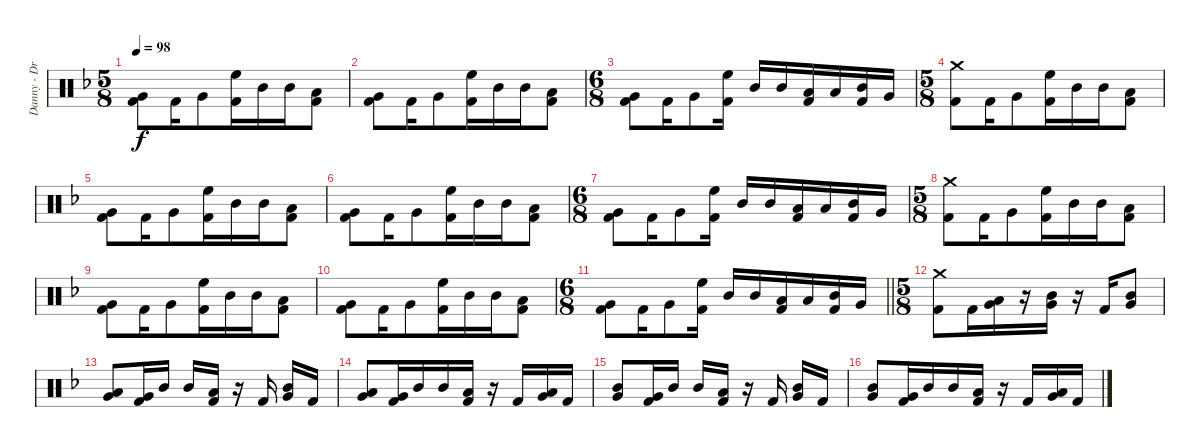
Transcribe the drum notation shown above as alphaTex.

\track ("Danny - Drums" "Danny - Dr") {instrument percussion}
\staff {score}
\articulation defaults
\ts (5 8)
\tempo 98
\clef neutral
\ks dminor
("Very Low Tom (hit)" "Kick (hit) 2").8{dy f beam merge} "Kick (hit) 2".16 "Very Low Tom (hit)".8 ("High Floor Tom (hit)" "Kick (hit) 2").16{beam merge} "Mid Tom (hit)".16 "Mid Tom (hit)".16{beam merge} ("Low Tom (hit)" "Kick (hit) 2").8 |
("Very Low Tom (hit)" "Kick (hit) 2").8{beam merge} "Kick (hit) 2".16 "Very Low Tom (hit)".8 ("High Floor Tom (hit)" "Kick (hit) 2").16{beam merge} "Mid Tom (hit)".16 "Mid Tom (hit)".16{beam merge} ("Low Tom (hit)" "Kick (hit) 2").8 |
\ts (6 8)
("Very Low Tom (hit)" "Kick (hit) 2").8 "Kick (hit) 2".16 "Very Low Tom (hit)".8{beam merge} ("High Floor Tom (hit)" "Kick (hit) 2").16{beam split} "Mid Tom (hit)".16 "Mid Tom (hit)".16 ("Low Tom (hit)" "Kick (hit) 2").16 "Low Tom (hit)".16 ("Mid Tom (hit)" "Kick (hit) 2").16 "Very Low Tom (hit)".16 |
\ts (5 8)
("Crash medium (hit)" "Kick (hit) 2").8{beam merge} "Kick (hit) 2".16 "Very Low Tom (hit)".8 ("High Floor Tom (hit)" "Kick (hit) 2").16{beam merge} "Mid Tom (hit)".16 "Mid Tom (hit)".16{beam merge} ("Low Tom (hit)" "Kick (hit) 2").8 |
("Very Low Tom (hit)" "Kick (hit) 2").8{beam merge} "Kick (hit) 2".16 "Very Low Tom (hit)".8 ("High Floor Tom (hit)" "Kick (hit) 2").16{beam merge} "Mid Tom (hit)".16 "Mid Tom (hit)".16{beam merge} ("Low Tom (hit)" "Kick (hit) 2").8 |
("Very Low Tom (hit)" "Kick (hit) 2").8{beam merge} "Kick (hit) 2".16 "Very Low Tom (hit)".8 ("High Floor Tom (hit)" "Kick (hit) 2").16{beam merge} "Mid Tom (hit)".16 "Mid Tom (hit)".16{beam merge} ("Low Tom (hit)" "Kick (hit) 2").8 |
\ts (6 8)
("Very Low Tom (hit)" "Kick (hit) 2").8 "Kick (hit) 2".16 "Very Low Tom (hit)".8{beam merge} ("High Floor Tom (hit)" "Kick (hit) 2").16{beam split} "Mid Tom (hit)".16 "Mid Tom (hit)".16 ("Low Tom (hit)" "Kick (hit) 2").16 "Low Tom (hit)".16 ("Mid Tom (hit)" "Kick (hit) 2").16 "Very Low Tom (hit)".16 |
\ts (5 8)
("Crash medium (hit)" "Kick (hit) 2").8{beam merge} "Kick (hit) 2".16 "Very Low Tom (hit)".8 ("High Floor Tom (hit)" "Kick (hit) 2").16{beam merge} "Mid Tom (hit)".16 "Mid Tom (hit)".16{beam merge} ("Low Tom (hit)" "Kick (hit) 2").8 |
("Very Low Tom (hit)" "Kick (hit) 2").8{beam merge} "Kick (hit) 2".16 "Very Low Tom (hit)".8 ("High Floor Tom (hit)" "Kick (hit) 2").16{beam merge} "Mid Tom (hit)".16 "Mid Tom (hit)".16{beam merge} ("Low Tom (hit)" "Kick (hit) 2").8 |
("Very Low Tom (hit)" "Kick (hit) 2").8{beam merge} "Kick (hit) 2".16 "Very Low Tom (hit)".8 ("High Floor Tom (hit)" "Kick (hit) 2").16{beam merge} "Mid Tom (hit)".16 "Mid Tom (hit)".16{beam merge} ("Low Tom (hit)" "Kick (hit) 2").8 |
\ts (6 8)
\barLineRight lightlight
("Very Low Tom (hit)" "Kick (hit) 2").8 "Kick (hit) 2".16 "Very Low Tom (hit)".8{beam merge} ("High Floor Tom (hit)" "Kick (hit) 2").16{beam split} "Mid Tom (hit)".16 "Mid Tom (hit)".16 ("Low Tom (hit)" "Kick (hit) 2").16 "Low Tom (hit)".16 ("Mid Tom (hit)" "Kick (hit) 2").16 "Very Low Tom (hit)".16 |
\ts (5 8)
("Crash medium (hit)" "Kick (hit) 2").8{beam merge} "Kick (hit) 2".16 ("Low Tom (hit)" "Very Low Tom (hit)").16 r.16 ("Mid Tom (hit)" "Very Low Tom (hit)").16 r.16 "Kick (hit) 2".16 ("Mid Tom (hit)" "Very Low Tom (hit)").8 |
("Low Tom (hit)" "Very Low Tom (hit)").8{beam merge} ("Very Low Tom (hit)" "Kick (hit) 2").16 "Mid Tom (hit)".16{beam split} "Mid Tom (hit)".16 ("Low Tom (hit)" "Kick (hit) 2").16 r.16 "Kick (hit) 2".16{beam split} ("Mid Tom (hit)" "Very Low Tom (hit)").16 "Kick (hit) 2".16 |
("Low Tom (hit)" "Very Low Tom (hit)").8{beam merge} ("Very Low Tom (hit)" "Kick (hit) 2").16 "Mid Tom (hit)".16 "Mid Tom (hit)".16 ("Low Tom (hit)" "Kick (hit) 2").16 r.16 "Kick (hit) 2".16 ("Low Tom (hit)" "Very Low Tom (hit)").16 "Kick (hit) 2".16 |
("Mid Tom (hit)" "Very Low Tom (hit)").8{beam merge} ("Very Low Tom (hit)" "Kick (hit) 2").16 "Mid Tom (hit)".16{beam split} "Mid Tom (hit)".16 ("Low Tom (hit)" "Kick (hit) 2").16 r.16 "Kick (hit) 2".16{beam split} ("Mid Tom (hit)" "Very Low Tom (hit)").16 "Kick (hit) 2".16 |
("Mid Tom (hit)" "Very Low Tom (hit)").8{beam merge} ("Very Low Tom (hit)" "Kick (hit) 2").16 "Mid Tom (hit)".16 "Mid Tom (hit)".16 ("Low Tom (hit)" "Kick (hit) 2").16 r.16 "Kick (hit) 2".16 ("Low Tom (hit)" "Very Low Tom (hit)").16 "Kick (hit) 2".16
